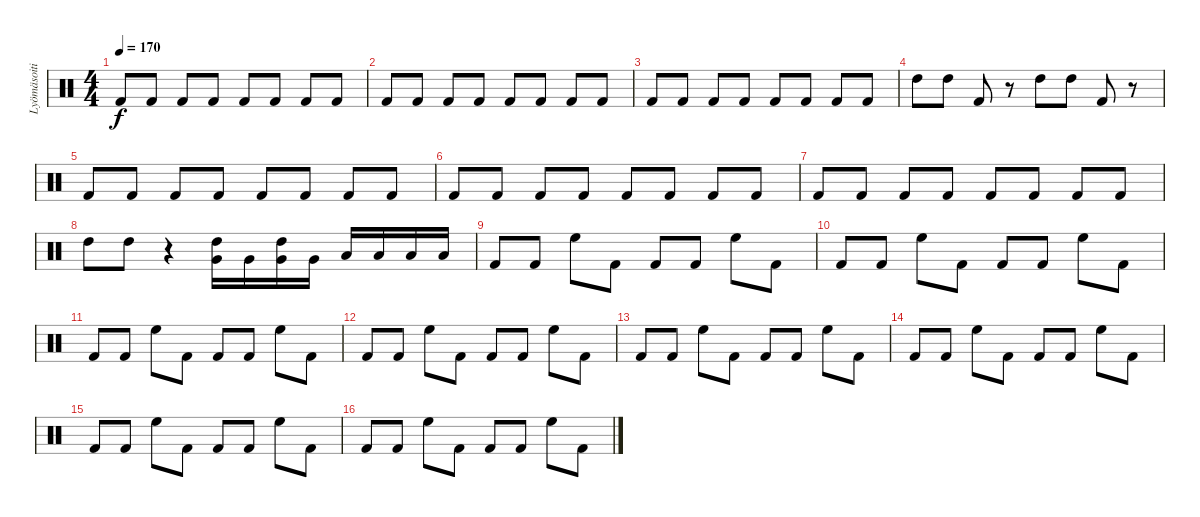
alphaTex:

\track ("Lyömäsoitin" "Lyömäsoiti") {instrument percussion}
\staff {score}
\articulation defaults
\ts (4 4)
\tempo 170
\clef neutral
\ks c "Kick (hit) 2".8{dy f} "Kick (hit) 2".8 "Kick (hit) 2".8 "Kick (hit) 2".8 "Kick (hit) 2".8 "Kick (hit) 2".8 "Kick (hit) 2".8 "Kick (hit) 2".8
|
"Kick (hit) 2".8 "Kick (hit) 2".8 "Kick (hit) 2".8 "Kick (hit) 2".8 "Kick (hit) 2".8 "Kick (hit) 2".8 "Kick (hit) 2".8 "Kick (hit) 2".8 |
"Kick (hit) 2".8 "Kick (hit) 2".8 "Kick (hit) 2".8 "Kick (hit) 2".8 "Kick (hit) 2".8 "Kick (hit) 2".8 "Kick (hit) 2".8 "Kick (hit) 2".8 |
"High Tom (hit)".8 "High Tom (hit)".8 "Kick (hit) 2".8 r.8 "High Tom (hit)".8 "High Tom (hit)".8 "Kick (hit) 2".8 r.8 |
"Kick (hit) 2".8 "Kick (hit) 2".8 "Kick (hit) 2".8 "Kick (hit) 2".8 "Kick (hit) 2".8 "Kick (hit) 2".8 "Kick (hit) 2".8 "Kick (hit) 2".8 |
"Kick (hit) 2".8 "Kick (hit) 2".8 "Kick (hit) 2".8 "Kick (hit) 2".8 "Kick (hit) 2".8 "Kick (hit) 2".8 "Kick (hit) 2".8 "Kick (hit) 2".8 |
"Kick (hit) 2".8 "Kick (hit) 2".8 "Kick (hit) 2".8 "Kick (hit) 2".8 "Kick (hit) 2".8 "Kick (hit) 2".8 "Kick (hit) 2".8 "Kick (hit) 2".8 |
"High Tom (hit)".8 "High Tom (hit)".8 r.4 ("Very Low Tom (hit)" "High Tom (hit)").16 "Very Low Tom (hit)".16 ("Very Low Tom (hit)" "High Tom (hit)").16 "Very Low Tom (hit)".16 "Low Floor Tom (hit)".16 "Low Floor Tom (hit)".16 "Low Floor Tom (hit)".16 "Low Floor Tom (hit)".16 |
"Kick (hit) 2".8 "Kick (hit) 2".8 "High Floor Tom (hit)".8 "Kick (hit) 2".8 "Kick (hit) 2".8 "Kick (hit) 2".8 "High Floor Tom (hit)".8 "Kick (hit) 2".8 |
"Kick (hit) 2".8 "Kick (hit) 2".8 "High Floor Tom (hit)".8 "Kick (hit) 2".8 "Kick (hit) 2".8 "Kick (hit) 2".8 "High Floor Tom (hit)".8 "Kick (hit) 2".8 |
"Kick (hit) 2".8 "Kick (hit) 2".8 "High Floor Tom (hit)".8 "Kick (hit) 2".8 "Kick (hit) 2".8 "Kick (hit) 2".8 "High Floor Tom (hit)".8 "Kick (hit) 2".8 |
"Kick (hit) 2".8 "Kick (hit) 2".8 "High Floor Tom (hit)".8 "Kick (hit) 2".8 "Kick (hit) 2".8 "Kick (hit) 2".8 "High Floor Tom (hit)".8 "Kick (hit) 2".8 |
"Kick (hit) 2".8 "Kick (hit) 2".8 "High Floor Tom (hit)".8 "Kick (hit) 2".8 "Kick (hit) 2".8 "Kick (hit) 2".8 "High Floor Tom (hit)".8 "Kick (hit) 2".8 |
"Kick (hit) 2".8 "Kick (hit) 2".8 "High Floor Tom (hit)".8 "Kick (hit) 2".8 "Kick (hit) 2".8 "Kick (hit) 2".8 "High Floor Tom (hit)".8 "Kick (hit) 2".8 |
"Kick (hit) 2".8 "Kick (hit) 2".8 "High Floor Tom (hit)".8 "Kick (hit) 2".8 "Kick (hit) 2".8 "Kick (hit) 2".8 "High Floor Tom (hit)".8 "Kick (hit) 2".8 |
"Kick (hit) 2".8 "Kick (hit) 2".8 "High Floor Tom (hit)".8 "Kick (hit) 2".8 "Kick (hit) 2".8 "Kick (hit) 2".8 "High Floor Tom (hit)".8 "Kick (hit) 2".8
